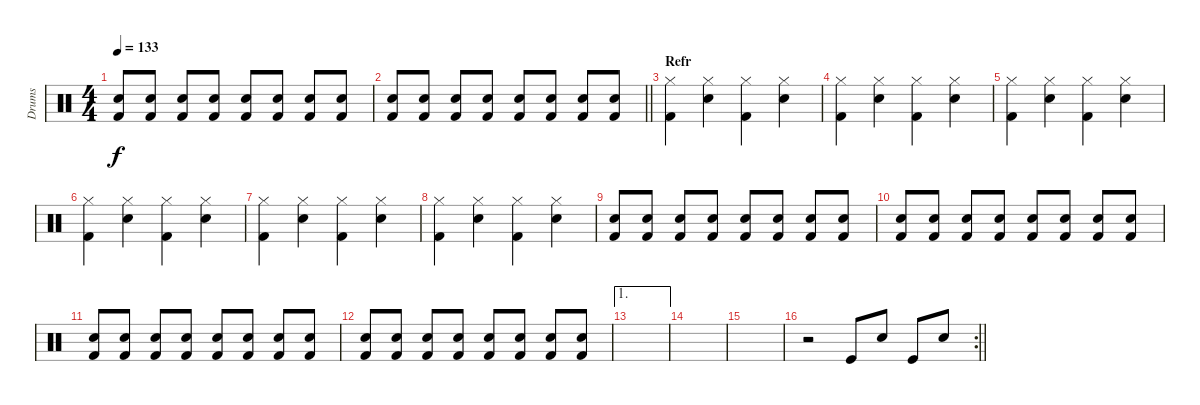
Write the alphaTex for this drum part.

\track ("Drums" "Drums") {instrument percussion}
\staff {score}
\articulation defaults
\ts (4 4)
\tempo 133
\clef neutral
\ks c
("Snare (hit) 2" "Kick (hit) 2").8{dy f} ("Snare (hit) 2" "Kick (hit) 2").8 ("Snare (hit) 2" "Kick (hit) 2").8 ("Snare (hit) 2" "Kick (hit) 2").8 ("Snare (hit) 2" "Kick (hit) 2").8 ("Snare (hit) 2" "Kick (hit) 2").8 ("Snare (hit) 2" "Kick (hit) 2").8 ("Snare (hit) 2" "Kick (hit) 2").8 |
\barLineRight lightlight
("Snare (hit) 2" "Kick (hit) 2").8 ("Snare (hit) 2" "Kick (hit) 2").8 ("Snare (hit) 2" "Kick (hit) 2").8 ("Snare (hit) 2" "Kick (hit) 2").8 ("Snare (hit) 2" "Kick (hit) 2").8 ("Snare (hit) 2" "Kick (hit) 2").8 ("Snare (hit) 2" "Kick (hit) 2").8 ("Snare (hit) 2" "Kick (hit) 2").8 |
\section ("" "Refr")
("Hi-Hat (closed)" "Kick (hit) 2").4 ("Hi-Hat (closed)" "Snare (hit) 2").4 ("Hi-Hat (closed)" "Kick (hit) 2").4 ("Hi-Hat (closed)" "Snare (hit) 2").4 |
("Hi-Hat (closed)" "Kick (hit) 2").4 ("Hi-Hat (closed)" "Snare (hit) 2").4 ("Hi-Hat (closed)" "Kick (hit) 2").4 ("Hi-Hat (closed)" "Snare (hit) 2").4 |
("Hi-Hat (closed)" "Kick (hit) 2").4 ("Hi-Hat (closed)" "Snare (hit) 2").4 ("Hi-Hat (closed)" "Kick (hit) 2").4 ("Hi-Hat (closed)" "Snare (hit) 2").4 |
("Hi-Hat (closed)" "Kick (hit) 2").4 ("Hi-Hat (closed)" "Snare (hit) 2").4 ("Hi-Hat (closed)" "Kick (hit) 2").4 ("Hi-Hat (closed)" "Snare (hit) 2").4 |
("Hi-Hat (closed)" "Kick (hit) 2").4 ("Hi-Hat (closed)" "Snare (hit) 2").4 ("Hi-Hat (closed)" "Kick (hit) 2").4 ("Hi-Hat (closed)" "Snare (hit) 2").4 |
("Hi-Hat (closed)" "Kick (hit) 2").4 ("Hi-Hat (closed)" "Snare (hit) 2").4 ("Hi-Hat (closed)" "Kick (hit) 2").4 ("Hi-Hat (closed)" "Snare (hit) 2").4 |
("Snare (hit) 2" "Kick (hit) 2").8 ("Snare (hit) 2" "Kick (hit) 2").8 ("Snare (hit) 2" "Kick (hit) 2").8 ("Snare (hit) 2" "Kick (hit) 2").8 ("Snare (hit) 2" "Kick (hit) 2").8 ("Snare (hit) 2" "Kick (hit) 2").8 ("Snare (hit) 2" "Kick (hit) 2").8 ("Snare (hit) 2" "Kick (hit) 2").8 |
("Snare (hit) 2" "Kick (hit) 2").8 ("Snare (hit) 2" "Kick (hit) 2").8 ("Snare (hit) 2" "Kick (hit) 2").8 ("Snare (hit) 2" "Kick (hit) 2").8 ("Snare (hit) 2" "Kick (hit) 2").8 ("Snare (hit) 2" "Kick (hit) 2").8 ("Snare (hit) 2" "Kick (hit) 2").8 ("Snare (hit) 2" "Kick (hit) 2").8 |
("Snare (hit) 2" "Kick (hit) 2").8 ("Snare (hit) 2" "Kick (hit) 2").8 ("Snare (hit) 2" "Kick (hit) 2").8 ("Snare (hit) 2" "Kick (hit) 2").8 ("Snare (hit) 2" "Kick (hit) 2").8 ("Snare (hit) 2" "Kick (hit) 2").8 ("Snare (hit) 2" "Kick (hit) 2").8 ("Snare (hit) 2" "Kick (hit) 2").8 |
("Snare (hit) 2" "Kick (hit) 2").8 ("Snare (hit) 2" "Kick (hit) 2").8 ("Snare (hit) 2" "Kick (hit) 2").8 ("Snare (hit) 2" "Kick (hit) 2").8 ("Snare (hit) 2" "Kick (hit) 2").8 ("Snare (hit) 2" "Kick (hit) 2").8 ("Snare (hit) 2" "Kick (hit) 2").8 ("Snare (hit) 2" "Kick (hit) 2").8 |
\ae 1
|
|
|
\rc 2
\barLineRight lightlight
r.2 "Kick (hit)".8 "Snare (hit) 2".8 "Kick (hit)".8 "Snare (hit) 2".8
